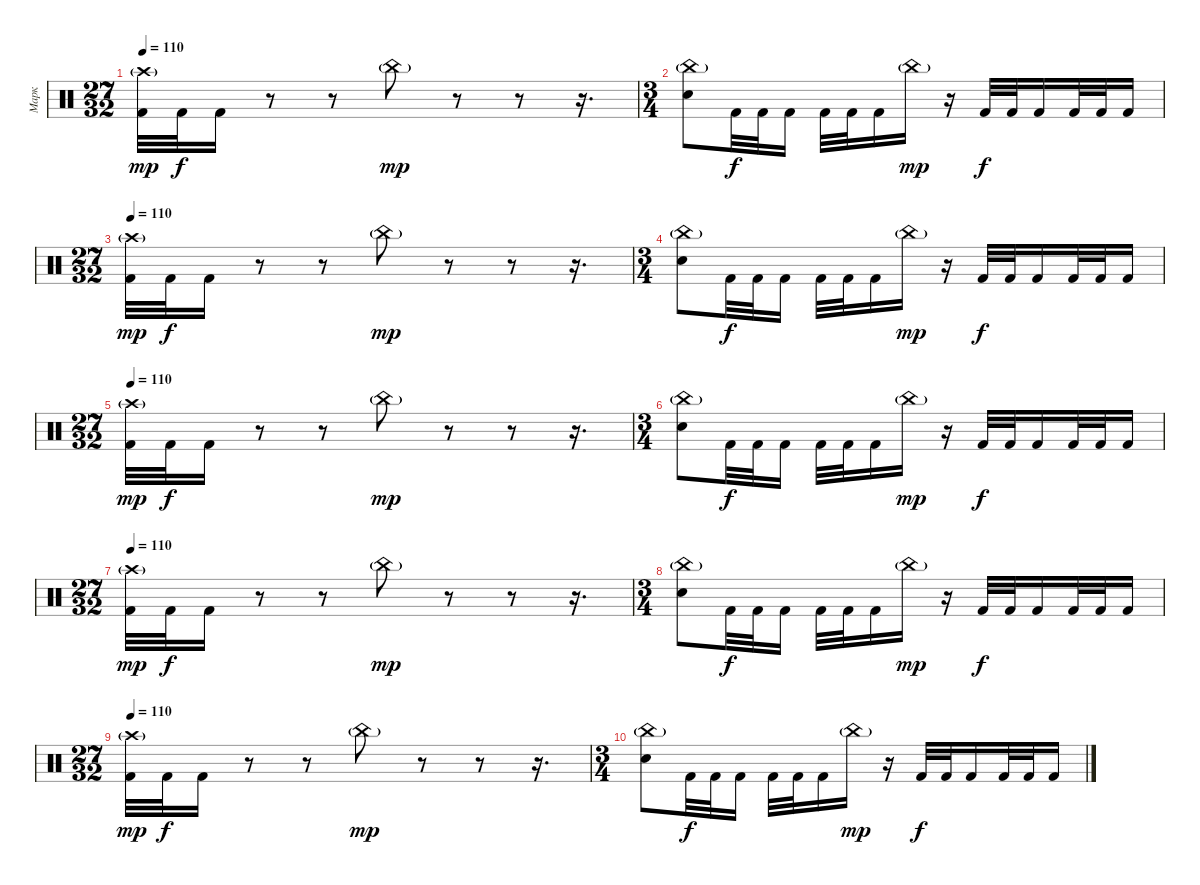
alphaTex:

\track ("Марк " "Марк ") {instrument percussion}
\staff {score}
\articulation defaults
\ts (27 32)
\tempo 110
\clef neutral
\ks c
("Crash high (hit)"{g} "Kick (hit) 2").32{dy mp} "Kick (hit) 2".32{dy f} "Kick (hit) 2".16 r.8 r.8 "China (hit)"{g}.8{dy mp} r.8 r.8 r.16{d} |
\ts (3 4)
("China (hit)"{g} "Electric Snare (hit)").8 "Kick (hit) 2".32{dy f} "Kick (hit) 2".32 "Kick (hit) 2".16 "Kick (hit) 2".32 "Kick (hit) 2".32 "Kick (hit) 2".16 "China (hit)"{g}.16{dy mp} r.16 "Kick (hit) 2".32{dy f} "Kick (hit) 2".32 "Kick (hit) 2".16 "Kick (hit) 2".32 "Kick (hit) 2".32 "Kick (hit) 2".16 |
\ts (27 32)
\tempo 110
("Crash high (hit)"{g} "Kick (hit) 2").32{dy mp} "Kick (hit) 2".32{dy f} "Kick (hit) 2".16 r.8 r.8 "China (hit)"{g}.8{dy mp} r.8 r.8 r.16{d} |
\ts (3 4)
("China (hit)"{g} "Electric Snare (hit)").8 "Kick (hit) 2".32{dy f} "Kick (hit) 2".32 "Kick (hit) 2".16 "Kick (hit) 2".32 "Kick (hit) 2".32 "Kick (hit) 2".16 "China (hit)"{g}.16{dy mp} r.16 "Kick (hit) 2".32{dy f} "Kick (hit) 2".32 "Kick (hit) 2".16 "Kick (hit) 2".32 "Kick (hit) 2".32 "Kick (hit) 2".16 |
\ts (27 32)
\tempo 110
("Crash high (hit)"{g} "Kick (hit) 2").32{dy mp} "Kick (hit) 2".32{dy f} "Kick (hit) 2".16 r.8 r.8 "China (hit)"{g}.8{dy mp} r.8 r.8 r.16{d} |
\ts (3 4)
("China (hit)"{g} "Electric Snare (hit)").8 "Kick (hit) 2".32{dy f} "Kick (hit) 2".32 "Kick (hit) 2".16 "Kick (hit) 2".32 "Kick (hit) 2".32 "Kick (hit) 2".16 "China (hit)"{g}.16{dy mp} r.16 "Kick (hit) 2".32{dy f} "Kick (hit) 2".32 "Kick (hit) 2".16 "Kick (hit) 2".32 "Kick (hit) 2".32 "Kick (hit) 2".16 |
\ts (27 32)
\tempo 110
("Crash high (hit)"{g} "Kick (hit) 2").32{dy mp} "Kick (hit) 2".32{dy f} "Kick (hit) 2".16 r.8 r.8 "China (hit)"{g}.8{dy mp} r.8 r.8 r.16{d} |
\ts (3 4)
("China (hit)"{g} "Electric Snare (hit)").8 "Kick (hit) 2".32{dy f} "Kick (hit) 2".32 "Kick (hit) 2".16 "Kick (hit) 2".32 "Kick (hit) 2".32 "Kick (hit) 2".16 "China (hit)"{g}.16{dy mp} r.16 "Kick (hit) 2".32{dy f} "Kick (hit) 2".32 "Kick (hit) 2".16 "Kick (hit) 2".32 "Kick (hit) 2".32 "Kick (hit) 2".16 |
\ts (27 32)
\tempo 110
("Crash high (hit)"{g} "Kick (hit) 2").32{dy mp} "Kick (hit) 2".32{dy f} "Kick (hit) 2".16 r.8 r.8 "China (hit)"{g}.8{dy mp} r.8 r.8 r.16{d} |
\ts (3 4)
("China (hit)"{g} "Electric Snare (hit)").8 "Kick (hit) 2".32{dy f} "Kick (hit) 2".32 "Kick (hit) 2".16 "Kick (hit) 2".32 "Kick (hit) 2".32 "Kick (hit) 2".16 "China (hit)"{g}.16{dy mp} r.16 "Kick (hit) 2".32{dy f} "Kick (hit) 2".32 "Kick (hit) 2".16 "Kick (hit) 2".32 "Kick (hit) 2".32 "Kick (hit) 2".16
